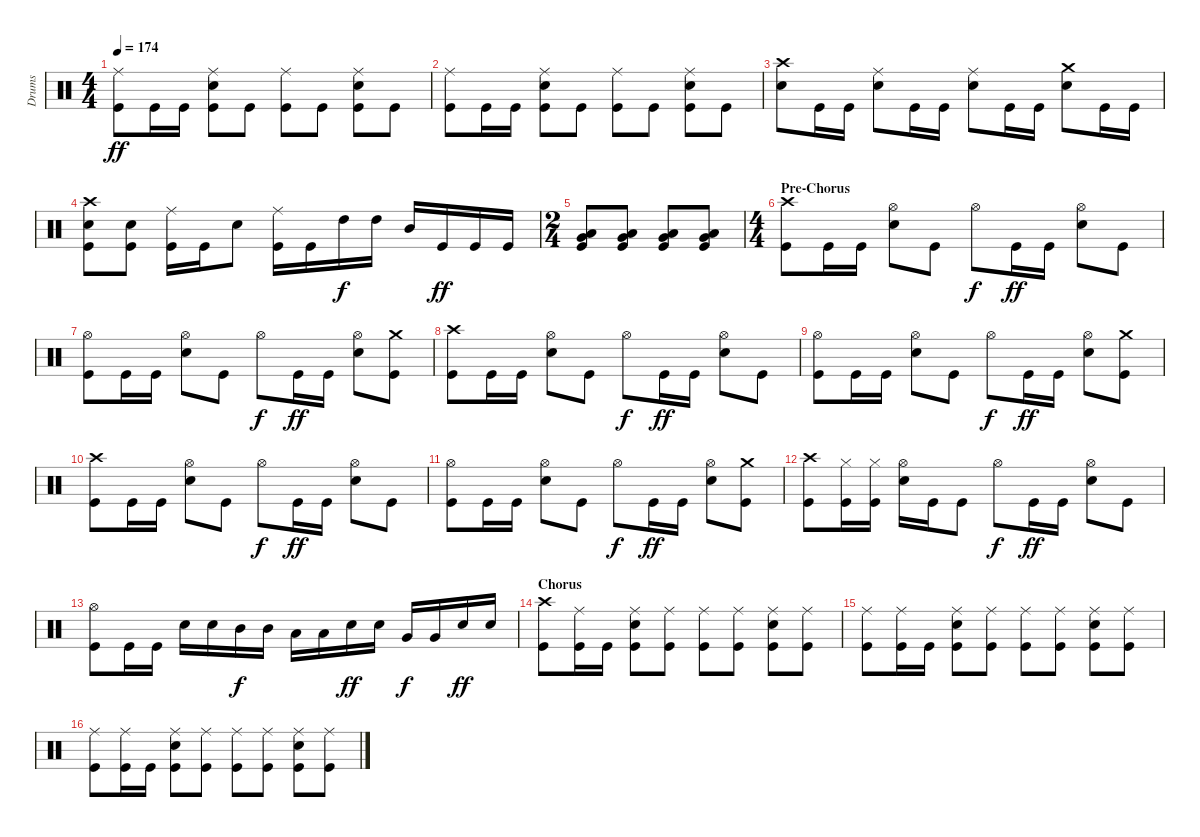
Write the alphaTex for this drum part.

\track ("Drums" "Drums") {instrument percussion}
\staff {score}
\articulation defaults
\ts (4 4)
\tempo 174
\clef neutral
\ks c
("Ride (middle)" "Kick (hit)").8{dy ff} "Kick (hit)".16 "Kick (hit)".16 ("Ride (middle)" "Electric Snare (hit)" "Kick (hit)").8 "Kick (hit)".8 ("Ride (middle)" "Kick (hit)").8 "Kick (hit)".8 ("Ride (middle)" "Electric Snare (hit)" "Kick (hit)").8 "Kick (hit)".8 |
("Ride (middle)" "Kick (hit)").8 "Kick (hit)".16 "Kick (hit)".16 ("Ride (middle)" "Electric Snare (hit)" "Kick (hit)").8 "Kick (hit)".8 ("Ride (middle)" "Kick (hit)").8 "Kick (hit)".8 ("Ride (middle)" "Electric Snare (hit)" "Kick (hit)").8 "Kick (hit)".8 |
("Crash high (hit)" "Electric Snare (hit)").8 "Kick (hit)".16 "Kick (hit)".16 ("Ride (middle)" "Electric Snare (hit)").8 "Kick (hit)".16 "Kick (hit)".16 ("Ride (middle)" "Electric Snare (hit)").8 "Kick (hit)".16 "Kick (hit)".16 ("Crash medium (hit)" "Electric Snare (hit)").8 "Kick (hit)".16 "Kick (hit)".16 |
("Crash high (hit)" "Electric Snare (hit)" "Kick (hit)").8 ("Electric Snare (hit)" "Kick (hit)").8 ("Ride (middle)" "Kick (hit)").16 "Kick (hit)".16 "Electric Snare (hit)".8 ("Ride (middle)" "Kick (hit)").16 "Kick (hit)".16 "High Tom (hit)".16{dy f} "High Tom (hit)".16 "Mid Tom (hit)".16 "Kick (hit)".16{dy ff} "Kick (hit)".16 "Kick (hit)".16 |
\ts (2 4)
("Low Tom (hit)" "Very Low Tom (hit)" "Kick (hit)").8 ("Low Tom (hit)" "Very Low Tom (hit)" "Kick (hit)").8 ("Low Tom (hit)" "Very Low Tom (hit)" "Kick (hit)").8 ("Low Tom (hit)" "Very Low Tom (hit)" "Kick (hit)").8 |
\ts (4 4)
\section ("" "Pre-Chorus")
("Crash high (hit)" "Kick (hit)").8 "Kick (hit)".16 "Kick (hit)".16 ("Hi-Hat (open)" "Electric Snare (hit)").8 "Kick (hit)".8 "Hi-Hat (open)".8{dy f} "Kick (hit)".16{dy ff} "Kick (hit)".16 ("Hi-Hat (open)" "Electric Snare (hit)").8 "Kick (hit)".8 |
("Hi-Hat (open)" "Kick (hit)").8 "Kick (hit)".16 "Kick (hit)".16 ("Hi-Hat (open)" "Electric Snare (hit)").8 "Kick (hit)".8 "Hi-Hat (open)".8{dy f} "Kick (hit)".16{dy ff} "Kick (hit)".16 ("Hi-Hat (open)" "Electric Snare (hit)").8 ("Crash medium (hit)" "Kick (hit)").8 |
("Crash high (hit)" "Kick (hit)").8 "Kick (hit)".16 "Kick (hit)".16 ("Hi-Hat (open)" "Electric Snare (hit)").8 "Kick (hit)".8 "Hi-Hat (open)".8{dy f} "Kick (hit)".16{dy ff} "Kick (hit)".16 ("Hi-Hat (open)" "Electric Snare (hit)").8 "Kick (hit)".8 |
("Hi-Hat (open)" "Kick (hit)").8 "Kick (hit)".16 "Kick (hit)".16 ("Hi-Hat (open)" "Electric Snare (hit)").8 "Kick (hit)".8 "Hi-Hat (open)".8{dy f} "Kick (hit)".16{dy ff} "Kick (hit)".16 ("Hi-Hat (open)" "Electric Snare (hit)").8 ("Crash medium (hit)" "Kick (hit)").8 |
("Crash high (hit)" "Kick (hit)").8 "Kick (hit)".16 "Kick (hit)".16 ("Hi-Hat (open)" "Electric Snare (hit)").8 "Kick (hit)".8 "Hi-Hat (open)".8{dy f} "Kick (hit)".16{dy ff} "Kick (hit)".16 ("Hi-Hat (open)" "Electric Snare (hit)").8 "Kick (hit)".8 |
("Hi-Hat (open)" "Kick (hit)").8 "Kick (hit)".16 "Kick (hit)".16 ("Hi-Hat (open)" "Electric Snare (hit)").8 "Kick (hit)".8 "Hi-Hat (open)".8{dy f} "Kick (hit)".16{dy ff} "Kick (hit)".16 ("Hi-Hat (open)" "Electric Snare (hit)").8 ("Crash medium (hit)" "Kick (hit)").8 |
("Crash high (hit)" "Kick (hit)").8 ("Hi-Hat (closed)" "Kick (hit)").16 ("Hi-Hat (closed)" "Kick (hit)").16 ("Hi-Hat (open)" "Electric Snare (hit)").16 "Kick (hit)".16 "Kick (hit)".8 "Hi-Hat (open)".8{dy f} "Kick (hit)".16{dy ff} "Kick (hit)".16 ("Hi-Hat (open)" "Electric Snare (hit)").8 "Kick (hit)".8 |
("Hi-Hat (open)" "Kick (hit)").8 "Kick (hit)".16 "Kick (hit)".16 "Electric Snare (hit)".16 "Electric Snare (hit)".16 "Mid Tom (hit)".16{dy f} "Mid Tom (hit)".16 "Low Tom (hit)".16 "Low Tom (hit)".16 "Electric Snare (hit)".16{dy ff} "Electric Snare (hit)".16 "Very Low Tom (hit)".16{dy f} "Very Low Tom (hit)".16 "Electric Snare (hit)".16{dy ff} "Electric Snare (hit)".16 |
\section ("" "Chorus")
("Crash high (hit)" "Kick (hit)").8 ("Ride (middle)" "Kick (hit)").16 "Kick (hit)".16 ("Ride (middle)" "Electric Snare (hit)" "Kick (hit)").8 ("Ride (middle)" "Kick (hit)").8 ("Ride (middle)" "Kick (hit)").8 ("Ride (middle)" "Kick (hit)").8 ("Ride (middle)" "Electric Snare (hit)" "Kick (hit)").8 ("Ride (middle)" "Kick (hit)").8 |
("Ride (middle)" "Kick (hit)").8 ("Ride (middle)" "Kick (hit)").16 "Kick (hit)".16 ("Ride (middle)" "Electric Snare (hit)" "Kick (hit)").8 ("Ride (middle)" "Kick (hit)").8 ("Ride (middle)" "Kick (hit)").8 ("Ride (middle)" "Kick (hit)").8 ("Ride (middle)" "Electric Snare (hit)" "Kick (hit)").8 ("Ride (middle)" "Kick (hit)").8 |
("Ride (middle)" "Kick (hit)").8 ("Ride (middle)" "Kick (hit)").16 "Kick (hit)".16 ("Ride (middle)" "Electric Snare (hit)" "Kick (hit)").8 ("Ride (middle)" "Kick (hit)").8 ("Ride (middle)" "Kick (hit)").8 ("Ride (middle)" "Kick (hit)").8 ("Ride (middle)" "Electric Snare (hit)" "Kick (hit)").8 ("Ride (middle)" "Kick (hit)").8
